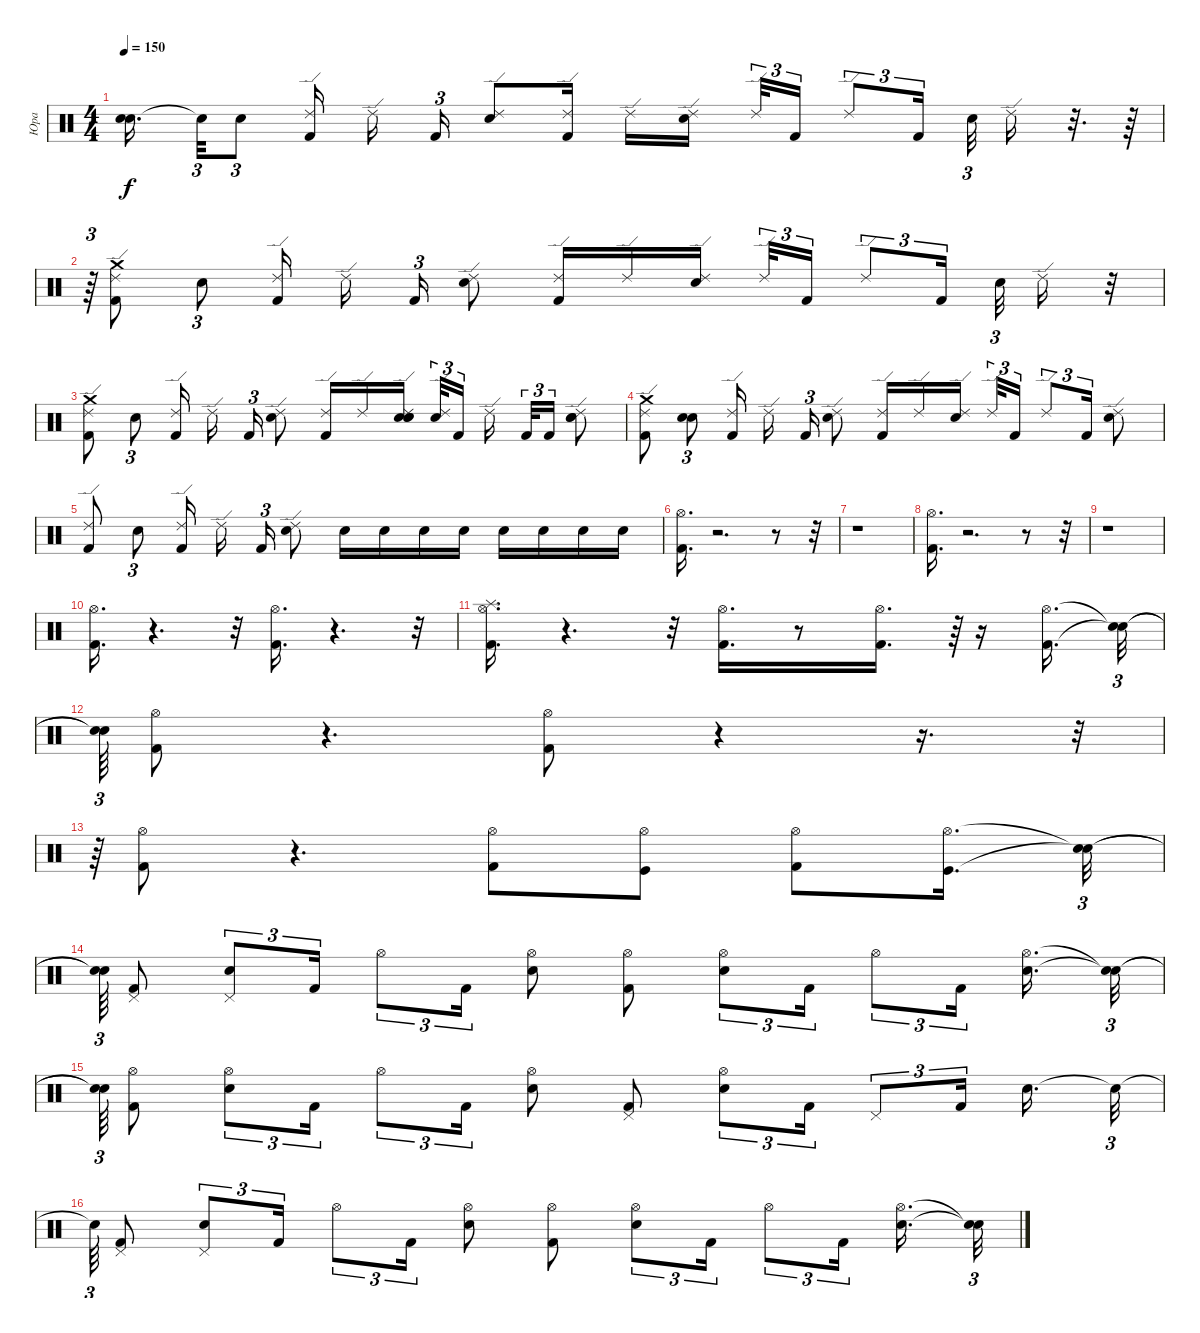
\track ("Юра" "Юра") {instrument percussion}
\staff {score}
\articulation defaults
\ts (4 4)
\tempo 150
\clef neutral
\ks c
("Snare (hit)"{t} "Snare (hit)"{t}).16{d dy f beam splitsecondary} "Snare (hit)"{t}.32{tu (3 2)} "Electric Snare (hit)".8{tu (3 2)} ("Ride (edge) 2" "Kick (hit) 2").16 "Ride (edge) 2".16{beam splitsecondary} "Kick (hit) 2".16{tu (3 2)} ("Ride (edge) 2" "Electric Snare (hit)").8 ("Ride (edge) 2" "Kick (hit) 2").16 "Ride (edge) 2".16 ("Ride (edge) 2" "Electric Snare (hit)").16{beam splitsecondary} "Ride (edge) 2".32{tu (3 2)} "Kick (hit) 2".16{tu (3 2)} "Ride (edge) 2".8{tu (3 2)} "Kick (hit) 2".16{tu (3 2) beam splitsecondary} "Electric Snare (hit)".32{tu (3 2)} "Ride (edge) 2".16 r.32{d} r.64 |
r.64{tu (3 2)} ("Ride (edge) 2" "Crash medium (hit)" "Kick (hit) 2").8 "Electric Snare (hit)".8{tu (3 2)} ("Kick (hit) 2" "Ride (edge) 2").16 "Ride (edge) 2".16{beam splitsecondary} "Kick (hit) 2".16{tu (3 2)} ("Ride (edge) 2" "Electric Snare (hit)").8 ("Ride (edge) 2" "Kick (hit) 2").16 "Ride (edge) 2".16 ("Ride (edge) 2" "Electric Snare (hit)").16{beam splitsecondary} "Ride (edge) 2".32{tu (3 2)} "Kick (hit) 2".16{tu (3 2)} "Ride (edge) 2".8{tu (3 2)} "Kick (hit) 2".16{tu (3 2) beam splitsecondary} "Electric Snare (hit)".32{tu (3 2)} "Ride (edge) 2".16 r.32 |
("Ride (edge) 2" "Crash medium (hit)" "Kick (hit) 2").8 "Electric Snare (hit)".8{tu (3 2)} ("Kick (hit) 2" "Ride (edge) 2").16 "Ride (edge) 2".16{beam splitsecondary} "Kick (hit) 2".16{tu (3 2)} ("Ride (edge) 2" "Electric Snare (hit)").8 ("Ride (edge) 2" "Kick (hit) 2").16 "Ride (edge) 2".16 ("Ride (edge) 2" "Electric Snare (hit)" "Electric Snare (hit)" "Electric Snare (hit)").16{beam splitsecondary} ("Ride (edge) 2" "Electric Snare (hit)").32{tu (3 2)} "Kick (hit) 2".16{tu (3 2)} "Ride (edge) 2".16{beam splitsecondary} "Kick (hit) 2".32{tu (3 2)} "Kick (hit) 2".16{tu (3 2)} ("Electric Snare (hit)" "Electric Snare (hit)" "Ride (edge) 2").8 |
("Ride (edge) 2" "Kick (hit) 2" "Crash medium (hit)").8 ("Electric Snare (hit)" "Electric Snare (hit)").8{tu (3 2)} ("Ride (edge) 2" "Kick (hit) 2").16 "Ride (edge) 2".16{beam splitsecondary} "Kick (hit) 2".16{tu (3 2)} ("Ride (edge) 2" "Electric Snare (hit)").8 ("Ride (edge) 2" "Kick (hit) 2").16 "Ride (edge) 2".16 ("Ride (edge) 2" "Electric Snare (hit)").16{beam splitsecondary} "Ride (edge) 2".32{tu (3 2)} "Kick (hit) 2".16{tu (3 2)} "Ride (edge) 2".8{tu (3 2)} "Kick (hit) 2".16{tu (3 2)} ("Ride (edge) 2" "Electric Snare (hit)").8 |
("Ride (edge) 2" "Kick (hit) 2").8 "Electric Snare (hit)".8{tu (3 2)} ("Ride (edge) 2" "Kick (hit) 2").16 "Ride (edge) 2".16{beam splitsecondary} "Kick (hit) 2".16{tu (3 2)} ("Electric Snare (hit)" "Ride (edge) 2").8 "Electric Snare (hit)".16 "Electric Snare (hit)".16 "Electric Snare (hit)".16 "Electric Snare (hit)".16 "Electric Snare (hit)".16 "Electric Snare (hit)".16 "Electric Snare (hit)".16 "Electric Snare (hit)".16 |
("Hi-Hat (open)" "Kick (hit) 2").16{d} r.2{d} r.8 r.32 |
r.1 |
("Hi-Hat (open)" "Kick (hit) 2").16{d} r.2{d} r.8 r.32 |
r.1 |
("Hi-Hat (open)" "Kick (hit) 2").16{d} r.4{d} r.32 ("Hi-Hat (open)" "Kick (hit) 2").16{d} r.4{d} r.32 |
("Splash (hit)" "Hi-Hat (open)" "Kick (hit) 2").16{d} r.4{d} r.32 ("Hi-Hat (open)" "Kick (hit) 2").16{d} r.8 ("Hi-Hat (open)" "Kick (hit) 2").16{d} r.64{tu (3 2)} r.16 ("Hi-Hat (open)" "Kick (hit) 2").16{d} ("Snare (hit)"{t} "Snare (hit)"{t}).32{tu (3 2)} |
("Snare (hit)"{t} "Snare (hit)"{t}).64{tu (3 2)} ("Hi-Hat (open)" "Kick (hit) 2").8 r.4{d} ("Hi-Hat (open)" "Kick (hit) 2").8 r.4 r.16{d} r.32{tu (3 2)} |
r.64{tu (3 2)} ("Hi-Hat (open)" "Kick (hit) 2").8 r.4{d} ("Kick (hit) 2" "Hi-Hat (open)").8 ("Kick (hit)" "Hi-Hat (open)").8 ("Kick (hit) 2" "Hi-Hat (open)").8 ("Kick (hit)" "Hi-Hat (open)").16{d} ("Snare (hit)"{t} "Snare (hit)"{t}).32{tu (3 2)} |
("Snare (hit)"{t} "Snare (hit)"{t}).64{tu (3 2)} ("Pedal Hi-Hat (hit)" "Kick (hit) 2").8 ("Pedal Hi-Hat (hit)" "Electric Snare (hit)").8{tu (3 2)} "Kick (hit) 2".16{tu (3 2)} "Hi-Hat (open)".8{tu (3 2)} "Kick (hit) 2".16{tu (3 2)} ("Hi-Hat (open)" "Electric Snare (hit)").8 ("Hi-Hat (open)" "Kick (hit) 2").8 ("Hi-Hat (open)" "Electric Snare (hit)").8{tu (3 2)} "Kick (hit) 2".16{tu (3 2)} "Hi-Hat (open)".8{tu (3 2)} "Kick (hit) 2".16{tu (3 2) beam splitsecondary} ("Hi-Hat (open)" "Electric Snare (hit)").16{d} ("Snare (hit)"{t} "Snare (hit)"{t}).32{tu (3 2)} |
("Snare (hit)"{t} "Snare (hit)"{t}).64{tu (3 2)} ("Hi-Hat (open)" "Kick (hit) 2").8 ("Hi-Hat (open)" "Electric Snare (hit)").8{tu (3 2)} "Kick (hit) 2".16{tu (3 2)} "Hi-Hat (open)".8{tu (3 2)} "Kick (hit) 2".16{tu (3 2)} ("Electric Snare (hit)" "Hi-Hat (open)").8 ("Pedal Hi-Hat (hit)" "Kick (hit) 2").8 ("Hi-Hat (open)" "Electric Snare (hit)").8{tu (3 2)} "Kick (hit) 2".16{tu (3 2)} "Pedal Hi-Hat (hit)".8{tu (3 2)} "Kick (hit) 2".16{tu (3 2) beam splitsecondary} "Electric Snare (hit)".16{d} "Snare (hit)"{t}.32{tu (3 2)} |
"Snare (hit)"{t}.64{tu (3 2)} ("Pedal Hi-Hat (hit)" "Kick (hit) 2").8 ("Pedal Hi-Hat (hit)" "Electric Snare (hit)").8{tu (3 2)} "Kick (hit) 2".16{tu (3 2)} "Hi-Hat (open)".8{tu (3 2)} "Kick (hit) 2".16{tu (3 2)} ("Hi-Hat (open)" "Electric Snare (hit)").8 ("Hi-Hat (open)" "Kick (hit) 2").8 ("Hi-Hat (open)" "Electric Snare (hit)").8{tu (3 2)} "Kick (hit) 2".16{tu (3 2)} "Hi-Hat (open)".8{tu (3 2)} "Kick (hit) 2".16{tu (3 2) beam splitsecondary} ("Hi-Hat (open)" "Electric Snare (hit)").16{d} ("Snare (hit)"{t} "Snare (hit)"{t}).32{tu (3 2)}
